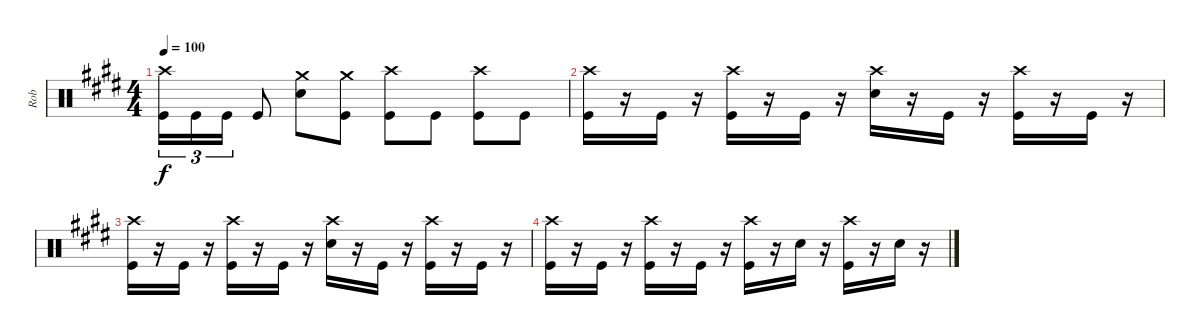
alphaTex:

\track ("Rob" "Rob") {instrument percussion}
\staff {score}
\articulation defaults
\ts (4 4)
\tempo 100
\clef neutral
\ks e
("Kick (hit)" "Crash high (hit)").16{tu (3 2) dy f} "Kick (hit)".16{tu (3 2)} "Kick (hit)".16{tu (3 2)} "Kick (hit)".8 ("Snare (hit) 2" "Crash medium (hit)").8 ("Kick (hit)" "Crash medium (hit)").8 ("Kick (hit)" "Crash high (hit)").8 "Kick (hit)".8 ("Kick (hit)" "Crash high (hit)").8 "Kick (hit)".8 |
("Kick (hit)" "Crash high (hit)").16 r.16 "Kick (hit)".16 r.16 ("Kick (hit)" "Crash high (hit)").16 r.16 "Kick (hit)".16 r.16 ("Snare (hit) 2" "Crash high (hit)").16 r.16 "Kick (hit)".16 r.16 ("Kick (hit)" "Crash high (hit)").16 r.16 "Kick (hit)".16 r.16 |
("Kick (hit)" "Crash high (hit)").16 r.16 "Kick (hit)".16 r.16 ("Kick (hit)" "Crash high (hit)").16 r.16 "Kick (hit)".16 r.16 ("Snare (hit) 2" "Crash high (hit)").16 r.16 "Kick (hit)".16 r.16 ("Kick (hit)" "Crash high (hit)").16 r.16 "Kick (hit)".16 r.16 |
("Kick (hit)" "Crash high (hit)").16 r.16 "Kick (hit)".16 r.16 ("Kick (hit)" "Crash high (hit)").16 r.16 "Kick (hit)".16 r.16 ("Crash high (hit)" "Kick (hit)").16 r.16 "Snare (hit) 2".16 r.16 ("Crash high (hit)" "Kick (hit)").16 r.16 "Snare (hit) 2".16 r.16
